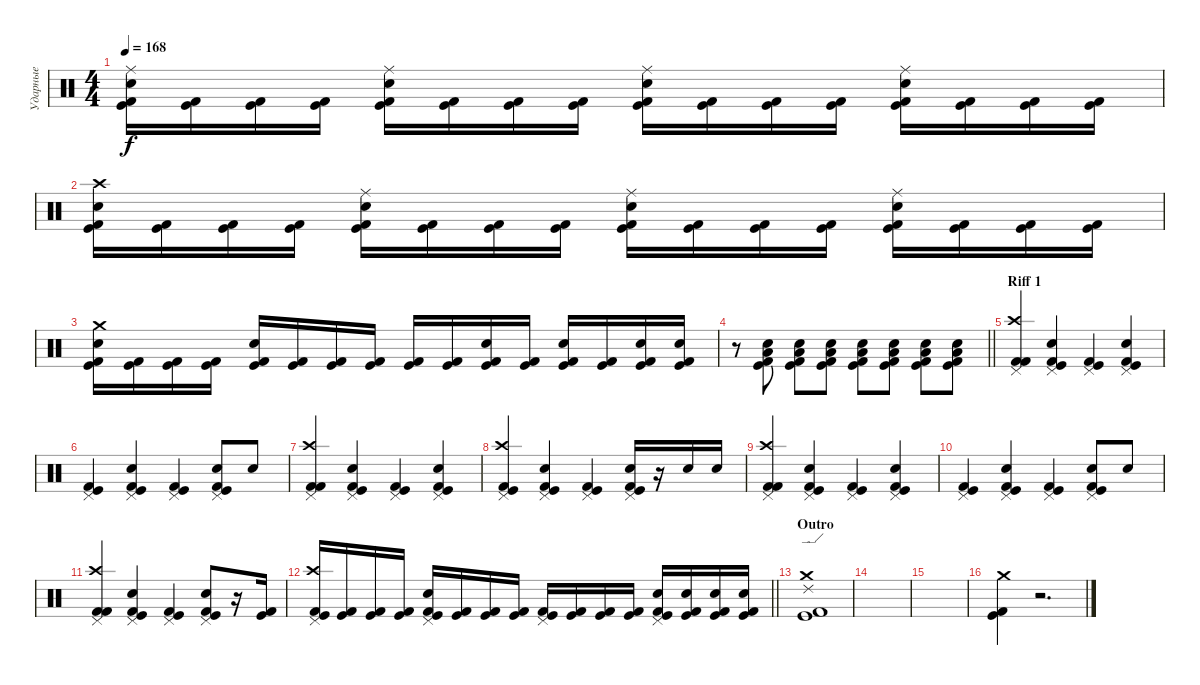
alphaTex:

\track ("Ударные" "Ударные") {instrument percussion}
\staff {score}
\articulation defaults
\ts (4 4)
\tempo 168
\clef neutral
\ks c
("Ride (middle)" "Electric Snare (hit)" "Kick (hit)" "Kick (hit) 2").16{dy f} ("Kick (hit)" "Kick (hit) 2").16 ("Kick (hit)" "Kick (hit) 2").16 ("Kick (hit)" "Kick (hit) 2").16 ("Ride (middle)" "Electric Snare (hit)" "Kick (hit)" "Kick (hit) 2").16 ("Kick (hit)" "Kick (hit) 2").16 ("Kick (hit)" "Kick (hit) 2").16 ("Kick (hit)" "Kick (hit) 2").16 ("Ride (middle)" "Electric Snare (hit)" "Kick (hit)" "Kick (hit) 2").16 ("Kick (hit)" "Kick (hit) 2").16 ("Kick (hit)" "Kick (hit) 2").16 ("Kick (hit)" "Kick (hit) 2").16 ("Ride (middle)" "Electric Snare (hit)" "Kick (hit)" "Kick (hit) 2").16 ("Kick (hit)" "Kick (hit) 2").16 ("Kick (hit)" "Kick (hit) 2").16 ("Kick (hit)" "Kick (hit) 2").16 |
("Crash high (hit)" "Electric Snare (hit)" "Kick (hit)" "Kick (hit) 2").16 ("Kick (hit)" "Kick (hit) 2").16 ("Kick (hit)" "Kick (hit) 2").16 ("Kick (hit)" "Kick (hit) 2").16 ("Ride (middle)" "Electric Snare (hit)" "Kick (hit)" "Kick (hit) 2").16 ("Kick (hit)" "Kick (hit) 2").16 ("Kick (hit)" "Kick (hit) 2").16 ("Kick (hit)" "Kick (hit) 2").16 ("Ride (middle)" "Electric Snare (hit)" "Kick (hit)" "Kick (hit) 2").16 ("Kick (hit)" "Kick (hit) 2").16 ("Kick (hit)" "Kick (hit) 2").16 ("Kick (hit)" "Kick (hit) 2").16 ("Ride (middle)" "Electric Snare (hit)" "Kick (hit)" "Kick (hit) 2").16 ("Kick (hit)" "Kick (hit) 2").16 ("Kick (hit)" "Kick (hit) 2").16 ("Kick (hit)" "Kick (hit) 2").16 |
("Crash medium (hit)" "Electric Snare (hit)" "Kick (hit)" "Kick (hit) 2").16 ("Kick (hit)" "Kick (hit) 2").16 ("Kick (hit)" "Kick (hit) 2").16 ("Kick (hit)" "Kick (hit) 2").16 ("Electric Snare (hit)" "Kick (hit)" "Kick (hit) 2").16 ("Kick (hit)" "Kick (hit) 2").16 ("Kick (hit)" "Kick (hit) 2").16 ("Kick (hit)" "Kick (hit) 2").16 ("Kick (hit)" "Kick (hit) 2").16 ("Kick (hit)" "Kick (hit) 2").16 ("Electric Snare (hit)" "Kick (hit)" "Kick (hit) 2").16 ("Kick (hit)" "Kick (hit) 2").16 ("Electric Snare (hit)" "Kick (hit)" "Kick (hit) 2").16 ("Kick (hit)" "Kick (hit) 2").16 ("Electric Snare (hit)" "Kick (hit)" "Kick (hit) 2").16 ("Electric Snare (hit)" "Kick (hit)" "Kick (hit) 2").16 |
\barLineRight lightlight
r.8 ("Low Tom (hit)" "Electric Snare (hit)" "Kick (hit)" "Kick (hit) 2").8 ("Low Tom (hit)" "Electric Snare (hit)" "Kick (hit)" "Kick (hit) 2").8 ("Low Tom (hit)" "Electric Snare (hit)" "Kick (hit)" "Kick (hit) 2").8 ("Low Tom (hit)" "Electric Snare (hit)" "Kick (hit)" "Kick (hit) 2").8 ("Low Tom (hit)" "Electric Snare (hit)" "Kick (hit)" "Kick (hit) 2").8 ("Low Tom (hit)" "Electric Snare (hit)" "Kick (hit)" "Kick (hit) 2").8 ("Low Tom (hit)" "Electric Snare (hit)" "Kick (hit)" "Kick (hit) 2").8 |
\section ("" "Riff 1")
("Crash high (hit)" "Pedal Hi-Hat (hit)" "Kick (hit) 2" "Kick (hit) 2").4 ("Pedal Hi-Hat (hit)" "Electric Snare (hit)" "Kick (hit)" "Kick (hit) 2").4 ("Pedal Hi-Hat (hit)" "Kick (hit)" "Kick (hit) 2").4 ("Pedal Hi-Hat (hit)" "Electric Snare (hit)" "Kick (hit)" "Kick (hit) 2").4 |
("Pedal Hi-Hat (hit)" "Kick (hit)" "Kick (hit) 2").4 ("Pedal Hi-Hat (hit)" "Electric Snare (hit)" "Kick (hit)" "Kick (hit) 2").4 ("Pedal Hi-Hat (hit)" "Kick (hit)" "Kick (hit) 2").4 ("Pedal Hi-Hat (hit)" "Electric Snare (hit)" "Kick (hit)" "Kick (hit) 2").8 "Electric Snare (hit)".8 |
("Crash high (hit)" "Pedal Hi-Hat (hit)" "Kick (hit) 2" "Kick (hit) 2").4 ("Pedal Hi-Hat (hit)" "Electric Snare (hit)" "Kick (hit)" "Kick (hit) 2").4 ("Pedal Hi-Hat (hit)" "Kick (hit)" "Kick (hit) 2").4 ("Pedal Hi-Hat (hit)" "Electric Snare (hit)" "Kick (hit)" "Kick (hit) 2").4 |
("Crash high (hit)" "Pedal Hi-Hat (hit)" "Kick (hit)" "Kick (hit) 2").4 ("Pedal Hi-Hat (hit)" "Electric Snare (hit)" "Kick (hit)" "Kick (hit) 2").4 ("Pedal Hi-Hat (hit)" "Kick (hit)" "Kick (hit) 2").4 ("Pedal Hi-Hat (hit)" "Electric Snare (hit)" "Kick (hit)" "Kick (hit) 2").16 r.16 "Electric Snare (hit)".16 "Electric Snare (hit)".16 |
("Crash high (hit)" "Pedal Hi-Hat (hit)" "Kick (hit) 2" "Kick (hit) 2").4 ("Pedal Hi-Hat (hit)" "Electric Snare (hit)" "Kick (hit)" "Kick (hit) 2").4 ("Pedal Hi-Hat (hit)" "Kick (hit)" "Kick (hit) 2").4 ("Pedal Hi-Hat (hit)" "Electric Snare (hit)" "Kick (hit)" "Kick (hit) 2").4 |
("Pedal Hi-Hat (hit)" "Kick (hit)" "Kick (hit) 2").4 ("Pedal Hi-Hat (hit)" "Electric Snare (hit)" "Kick (hit)" "Kick (hit) 2").4 ("Pedal Hi-Hat (hit)" "Kick (hit)" "Kick (hit) 2").4 ("Pedal Hi-Hat (hit)" "Electric Snare (hit)" "Kick (hit)" "Kick (hit) 2").8 "Electric Snare (hit)".8 |
("Crash high (hit)" "Pedal Hi-Hat (hit)" "Kick (hit) 2" "Kick (hit) 2").4 ("Pedal Hi-Hat (hit)" "Electric Snare (hit)" "Kick (hit)" "Kick (hit) 2").4 ("Pedal Hi-Hat (hit)" "Kick (hit)" "Kick (hit) 2").4 ("Pedal Hi-Hat (hit)" "Electric Snare (hit)" "Kick (hit)" "Kick (hit) 2").8 r.16 ("Kick (hit)" "Kick (hit) 2").16 |
\barLineRight lightlight
("Crash high (hit)" "Pedal Hi-Hat (hit)" "Kick (hit)" "Kick (hit) 2").16 ("Kick (hit)" "Kick (hit) 2").16 ("Kick (hit)" "Kick (hit) 2").16 ("Kick (hit)" "Kick (hit) 2").16 ("Pedal Hi-Hat (hit)" "Electric Snare (hit)" "Kick (hit)" "Kick (hit) 2").16 ("Kick (hit)" "Kick (hit) 2").16 ("Kick (hit)" "Kick (hit) 2").16 ("Kick (hit)" "Kick (hit) 2").16 ("Pedal Hi-Hat (hit)" "Kick (hit)" "Kick (hit) 2").16 ("Kick (hit)" "Kick (hit) 2").16 ("Kick (hit)" "Kick (hit) 2").16 ("Kick (hit)" "Kick (hit) 2").16 ("Pedal Hi-Hat (hit)" "Electric Snare (hit)" "Kick (hit)" "Kick (hit) 2").16 ("Electric Snare (hit)" "Kick (hit)" "Kick (hit) 2").16 ("Electric Snare (hit)" "Kick (hit)" "Kick (hit) 2").16 ("Electric Snare (hit)" "Kick (hit)" "Kick (hit) 2").16 |
\section ("" "Outro")
("Ride (edge) 2" "Crash medium (hit)" "Kick (hit)" "Kick (hit) 2").1 |
|
|
("Crash medium (hit)" "Kick (hit)" "Kick (hit) 2").4 r.2{d}
